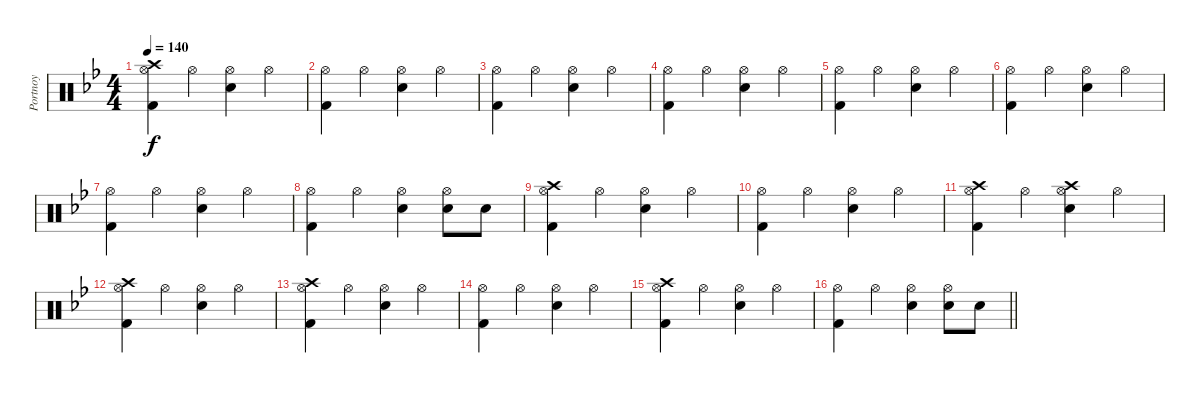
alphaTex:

\track ("Portnoy" "Portnoy") {instrument percussion}
\staff {score}
\articulation defaults
\ts (4 4)
\tempo 140
\clef neutral
\ks bb
("Crash high (hit)" "Hi-Hat (open)" "Kick (hit) 2").4{dy f} "Hi-Hat (open)".4 ("Hi-Hat (open)" "Snare (hit) 2").4 "Hi-Hat (open)".4 |
("Hi-Hat (open)" "Kick (hit) 2").4 "Hi-Hat (open)".4 ("Hi-Hat (open)" "Snare (hit) 2").4 "Hi-Hat (open)".4 |
("Hi-Hat (open)" "Kick (hit) 2").4 "Hi-Hat (open)".4 ("Hi-Hat (open)" "Snare (hit) 2").4 "Hi-Hat (open)".4 |
("Hi-Hat (open)" "Kick (hit) 2").4 "Hi-Hat (open)".4 ("Hi-Hat (open)" "Snare (hit) 2").4 "Hi-Hat (open)".4 |
("Hi-Hat (open)" "Kick (hit) 2").4 "Hi-Hat (open)".4 ("Hi-Hat (open)" "Snare (hit) 2").4 "Hi-Hat (open)".4 |
("Hi-Hat (open)" "Kick (hit) 2").4 "Hi-Hat (open)".4 ("Hi-Hat (open)" "Snare (hit) 2").4 "Hi-Hat (open)".4 |
("Hi-Hat (open)" "Kick (hit) 2").4 "Hi-Hat (open)".4 ("Hi-Hat (open)" "Snare (hit) 2").4 "Hi-Hat (open)".4 |
("Hi-Hat (open)" "Kick (hit) 2").4 "Hi-Hat (open)".4 ("Hi-Hat (open)" "Snare (hit) 2").4 ("Hi-Hat (open)" "Snare (hit) 2").8 "Snare (hit) 2".8 |
("Crash high (hit)" "Hi-Hat (open)" "Kick (hit) 2").4 "Hi-Hat (open)".4 ("Hi-Hat (open)" "Snare (hit) 2").4 "Hi-Hat (open)".4 |
("Hi-Hat (open)" "Kick (hit) 2").4 "Hi-Hat (open)".4 ("Hi-Hat (open)" "Snare (hit) 2").4 "Hi-Hat (open)".4 |
("Crash high (hit)" "Hi-Hat (open)" "Kick (hit) 2").4 "Hi-Hat (open)".4 ("Crash high (hit)" "Hi-Hat (open)" "Snare (hit) 2").4 "Hi-Hat (open)".4 |
("Crash high (hit)" "Hi-Hat (open)" "Kick (hit) 2").4 "Hi-Hat (open)".4 ("Hi-Hat (open)" "Snare (hit) 2").4 "Hi-Hat (open)".4 |
("Crash high (hit)" "Hi-Hat (open)" "Kick (hit) 2").4 "Hi-Hat (open)".4 ("Hi-Hat (open)" "Snare (hit) 2").4 "Hi-Hat (open)".4 |
("Hi-Hat (open)" "Kick (hit) 2").4 "Hi-Hat (open)".4 ("Hi-Hat (open)" "Snare (hit) 2").4 "Hi-Hat (open)".4 |
("Crash high (hit)" "Hi-Hat (open)" "Kick (hit) 2").4 "Hi-Hat (open)".4 ("Hi-Hat (open)" "Snare (hit) 2").4 "Hi-Hat (open)".4 |
\barLineRight lightlight
("Hi-Hat (open)" "Kick (hit) 2").4 "Hi-Hat (open)".4 ("Hi-Hat (open)" "Snare (hit) 2").4 ("Hi-Hat (open)" "Snare (hit) 2").8 "Snare (hit) 2".8
